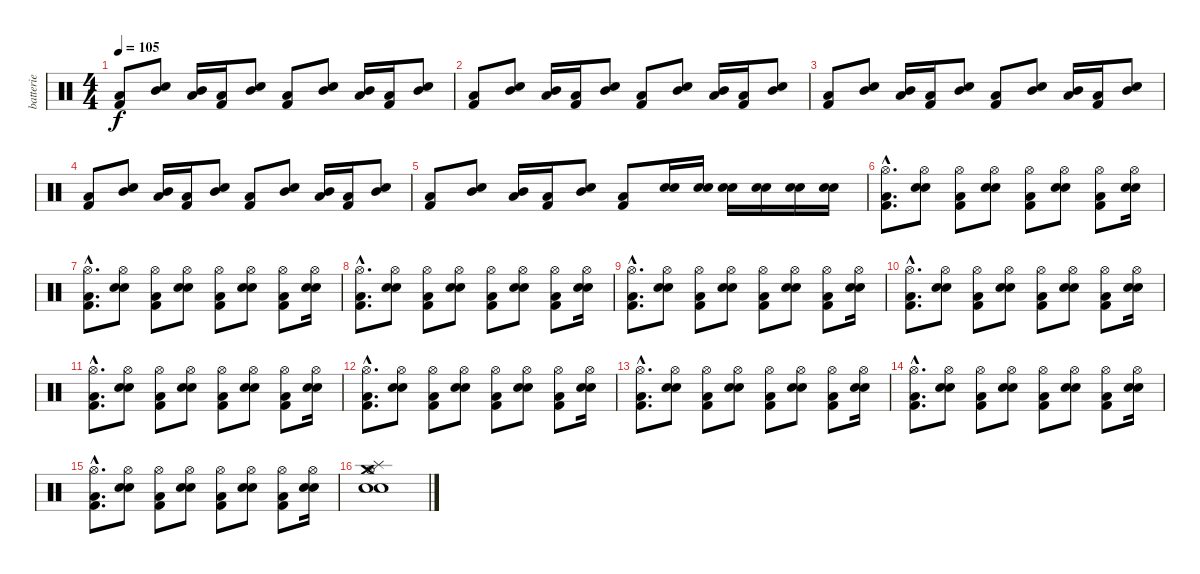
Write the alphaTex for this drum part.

\track ("batterie" "batterie") {instrument percussion}
\staff {score}
\articulation defaults
\ts (4 4)
\tempo 105
\clef neutral
\ks c
("Kick (hit) 2" "Low Floor Tom (hit)").8{dy f} ("Mid Tom (hit)" "Snare (hit) 2").8 ("Mid Tom (hit)" "Low Floor Tom (hit)").16 ("Kick (hit) 2" "Low Floor Tom (hit)").16 ("Mid Tom (hit)" "Snare (hit) 2").8 ("Kick (hit) 2" "Low Floor Tom (hit)").8 ("Mid Tom (hit)" "Snare (hit) 2").8 ("Mid Tom (hit)" "Low Floor Tom (hit)").16 ("Kick (hit) 2" "Low Floor Tom (hit)").16 ("Mid Tom (hit)" "Snare (hit) 2").8 |
("Kick (hit) 2" "Low Floor Tom (hit)").8 ("Mid Tom (hit)" "Snare (hit) 2").8 ("Mid Tom (hit)" "Low Floor Tom (hit)").16 ("Kick (hit) 2" "Low Floor Tom (hit)").16 ("Mid Tom (hit)" "Snare (hit) 2").8 ("Kick (hit) 2" "Low Floor Tom (hit)").8 ("Mid Tom (hit)" "Snare (hit) 2").8 ("Mid Tom (hit)" "Low Floor Tom (hit)").16 ("Kick (hit) 2" "Low Floor Tom (hit)").16 ("Mid Tom (hit)" "Snare (hit) 2").8 |
("Kick (hit) 2" "Low Floor Tom (hit)").8 ("Mid Tom (hit)" "Snare (hit) 2").8 ("Mid Tom (hit)" "Low Floor Tom (hit)").16 ("Kick (hit) 2" "Low Floor Tom (hit)").16 ("Mid Tom (hit)" "Snare (hit) 2").8 ("Kick (hit) 2" "Low Floor Tom (hit)").8 ("Mid Tom (hit)" "Snare (hit) 2").8 ("Mid Tom (hit)" "Low Floor Tom (hit)").16 ("Kick (hit) 2" "Low Floor Tom (hit)").16 ("Mid Tom (hit)" "Snare (hit) 2").8 |
("Kick (hit) 2" "Low Floor Tom (hit)").8 ("Mid Tom (hit)" "Snare (hit) 2").8 ("Mid Tom (hit)" "Low Floor Tom (hit)").16 ("Kick (hit) 2" "Low Floor Tom (hit)").16 ("Mid Tom (hit)" "Snare (hit) 2").8 ("Kick (hit) 2" "Low Floor Tom (hit)").8 ("Mid Tom (hit)" "Snare (hit) 2").8 ("Mid Tom (hit)" "Low Floor Tom (hit)").16 ("Kick (hit) 2" "Low Floor Tom (hit)").16 ("Mid Tom (hit)" "Snare (hit) 2").8 |
("Kick (hit) 2" "Low Floor Tom (hit)").8 ("Mid Tom (hit)" "Snare (hit) 2").8 ("Mid Tom (hit)" "Low Floor Tom (hit)").16 ("Kick (hit) 2" "Low Floor Tom (hit)").16 ("Mid Tom (hit)" "Snare (hit) 2").8 ("Kick (hit) 2" "Low Floor Tom (hit)").8 ("Electric Snare (hit)" "Snare (hit) 2").16 ("Electric Snare (hit)" "Snare (hit) 2").16 ("Electric Snare (hit)" "Snare (hit) 2").16 ("Electric Snare (hit)" "Snare (hit) 2").16 ("Electric Snare (hit)" "Snare (hit) 2").16 ("Electric Snare (hit)" "Snare (hit) 2").16 |
("Kick (hit) 2"{hac} "Low Floor Tom (hit)"{hac} "Hi-Hat (open)"{hac}).8{d} ("Electric Snare (hit)" "Snare (hit) 2" "Hi-Hat (open)").8 ("Kick (hit) 2" "Low Floor Tom (hit)" "Hi-Hat (open)").8 ("Electric Snare (hit)" "Snare (hit) 2" "Hi-Hat (open)").8 ("Kick (hit) 2" "Low Floor Tom (hit)" "Hi-Hat (open)").8 ("Electric Snare (hit)" "Snare (hit) 2" "Hi-Hat (open)").8 ("Kick (hit) 2" "Low Floor Tom (hit)" "Hi-Hat (open)").8 ("Electric Snare (hit)" "Snare (hit) 2" "Hi-Hat (open)").16 |
("Kick (hit) 2"{hac} "Low Floor Tom (hit)"{hac} "Hi-Hat (open)"{hac}).8{d} ("Electric Snare (hit)" "Snare (hit) 2" "Hi-Hat (open)").8 ("Kick (hit) 2" "Low Floor Tom (hit)" "Hi-Hat (open)").8 ("Electric Snare (hit)" "Snare (hit) 2" "Hi-Hat (open)").8 ("Kick (hit) 2" "Low Floor Tom (hit)" "Hi-Hat (open)").8 ("Electric Snare (hit)" "Snare (hit) 2" "Hi-Hat (open)").8 ("Kick (hit) 2" "Low Floor Tom (hit)" "Hi-Hat (open)").8 ("Electric Snare (hit)" "Snare (hit) 2" "Hi-Hat (open)").16 |
("Kick (hit) 2"{hac} "Low Floor Tom (hit)"{hac} "Hi-Hat (open)"{hac}).8{d} ("Electric Snare (hit)" "Snare (hit) 2" "Hi-Hat (open)").8 ("Kick (hit) 2" "Low Floor Tom (hit)" "Hi-Hat (open)").8 ("Electric Snare (hit)" "Snare (hit) 2" "Hi-Hat (open)").8 ("Kick (hit) 2" "Low Floor Tom (hit)" "Hi-Hat (open)").8 ("Electric Snare (hit)" "Snare (hit) 2" "Hi-Hat (open)").8 ("Kick (hit) 2" "Low Floor Tom (hit)" "Hi-Hat (open)").8 ("Electric Snare (hit)" "Snare (hit) 2" "Hi-Hat (open)").16 |
("Kick (hit) 2"{hac} "Low Floor Tom (hit)"{hac} "Hi-Hat (open)"{hac}).8{d} ("Electric Snare (hit)" "Snare (hit) 2" "Hi-Hat (open)").8 ("Kick (hit) 2" "Low Floor Tom (hit)" "Hi-Hat (open)").8 ("Electric Snare (hit)" "Snare (hit) 2" "Hi-Hat (open)").8 ("Kick (hit) 2" "Low Floor Tom (hit)" "Hi-Hat (open)").8 ("Electric Snare (hit)" "Snare (hit) 2" "Hi-Hat (open)").8 ("Kick (hit) 2" "Low Floor Tom (hit)" "Hi-Hat (open)").8 ("Electric Snare (hit)" "Snare (hit) 2" "Hi-Hat (open)").16 |
("Kick (hit) 2"{hac} "Low Floor Tom (hit)"{hac} "Hi-Hat (open)"{hac}).8{d} ("Electric Snare (hit)" "Snare (hit) 2" "Hi-Hat (open)").8 ("Kick (hit) 2" "Low Floor Tom (hit)" "Hi-Hat (open)").8 ("Electric Snare (hit)" "Snare (hit) 2" "Hi-Hat (open)").8 ("Kick (hit) 2" "Low Floor Tom (hit)" "Hi-Hat (open)").8 ("Electric Snare (hit)" "Snare (hit) 2" "Hi-Hat (open)").8 ("Kick (hit) 2" "Low Floor Tom (hit)" "Hi-Hat (open)").8 ("Electric Snare (hit)" "Snare (hit) 2" "Hi-Hat (open)").16 |
("Kick (hit) 2"{hac} "Low Floor Tom (hit)"{hac} "Hi-Hat (open)"{hac}).8{d} ("Electric Snare (hit)" "Snare (hit) 2" "Hi-Hat (open)").8 ("Kick (hit) 2" "Low Floor Tom (hit)" "Hi-Hat (open)").8 ("Electric Snare (hit)" "Snare (hit) 2" "Hi-Hat (open)").8 ("Kick (hit) 2" "Low Floor Tom (hit)" "Hi-Hat (open)").8 ("Electric Snare (hit)" "Snare (hit) 2" "Hi-Hat (open)").8 ("Kick (hit) 2" "Low Floor Tom (hit)" "Hi-Hat (open)").8 ("Electric Snare (hit)" "Snare (hit) 2" "Hi-Hat (open)").16 |
("Kick (hit) 2"{hac} "Low Floor Tom (hit)"{hac} "Hi-Hat (open)"{hac}).8{d} ("Electric Snare (hit)" "Snare (hit) 2" "Hi-Hat (open)").8 ("Kick (hit) 2" "Low Floor Tom (hit)" "Hi-Hat (open)").8 ("Electric Snare (hit)" "Snare (hit) 2" "Hi-Hat (open)").8 ("Kick (hit) 2" "Low Floor Tom (hit)" "Hi-Hat (open)").8 ("Electric Snare (hit)" "Snare (hit) 2" "Hi-Hat (open)").8 ("Kick (hit) 2" "Low Floor Tom (hit)" "Hi-Hat (open)").8 ("Electric Snare (hit)" "Snare (hit) 2" "Hi-Hat (open)").16 |
("Kick (hit) 2"{hac} "Low Floor Tom (hit)"{hac} "Hi-Hat (open)"{hac}).8{d} ("Electric Snare (hit)" "Snare (hit) 2" "Hi-Hat (open)").8 ("Kick (hit) 2" "Low Floor Tom (hit)" "Hi-Hat (open)").8 ("Electric Snare (hit)" "Snare (hit) 2" "Hi-Hat (open)").8 ("Kick (hit) 2" "Low Floor Tom (hit)" "Hi-Hat (open)").8 ("Electric Snare (hit)" "Snare (hit) 2" "Hi-Hat (open)").8 ("Kick (hit) 2" "Low Floor Tom (hit)" "Hi-Hat (open)").8 ("Electric Snare (hit)" "Snare (hit) 2" "Hi-Hat (open)").16 |
("Kick (hit) 2"{hac} "Low Floor Tom (hit)"{hac} "Hi-Hat (open)"{hac}).8{d} ("Electric Snare (hit)" "Snare (hit) 2" "Hi-Hat (open)").8 ("Kick (hit) 2" "Low Floor Tom (hit)" "Hi-Hat (open)").8 ("Electric Snare (hit)" "Snare (hit) 2" "Hi-Hat (open)").8 ("Kick (hit) 2" "Low Floor Tom (hit)" "Hi-Hat (open)").8 ("Electric Snare (hit)" "Snare (hit) 2" "Hi-Hat (open)").8 ("Kick (hit) 2" "Low Floor Tom (hit)" "Hi-Hat (open)").8 ("Electric Snare (hit)" "Snare (hit) 2" "Hi-Hat (open)").16 |
("Kick (hit) 2"{hac} "Low Floor Tom (hit)"{hac} "Hi-Hat (open)"{hac}).8{d} ("Electric Snare (hit)" "Snare (hit) 2" "Hi-Hat (open)").8 ("Kick (hit) 2" "Low Floor Tom (hit)" "Hi-Hat (open)").8 ("Electric Snare (hit)" "Snare (hit) 2" "Hi-Hat (open)").8 ("Kick (hit) 2" "Low Floor Tom (hit)" "Hi-Hat (open)").8 ("Electric Snare (hit)" "Snare (hit) 2" "Hi-Hat (open)").8 ("Kick (hit) 2" "Low Floor Tom (hit)" "Hi-Hat (open)").8 ("Electric Snare (hit)" "Snare (hit) 2" "Hi-Hat (open)").16 |
("Crash medium (hit)" "Electric Snare (hit)" "Snare (hit) 2" "Hi-Hat (open)" "Splash (hit)").1
